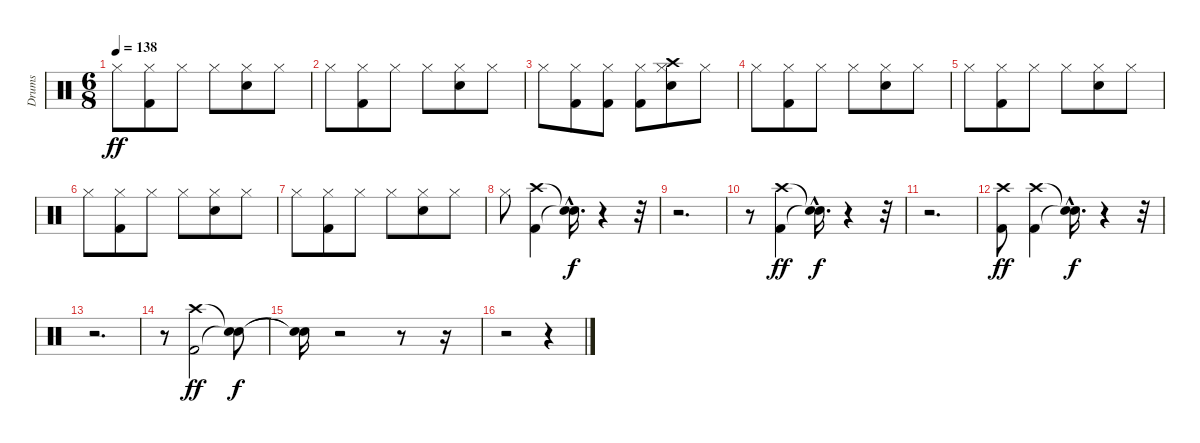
\track ("Drums" "Drums") {instrument percussion}
\staff {score}
\articulation defaults
\ts (6 8)
\tempo 138
\clef neutral
\ks c "Hi-Hat (closed)".8{dy ff}
("Kick (hit) 2" "Hi-Hat (closed)").8 "Hi-Hat (closed)".8 "Hi-Hat (closed)".8 ("Snare (hit) 2" "Hi-Hat (closed)").8 "Hi-Hat (closed)".8 |
"Hi-Hat (closed)".8 ("Kick (hit) 2" "Hi-Hat (closed)").8 "Hi-Hat (closed)".8 "Hi-Hat (closed)".8 ("Snare (hit) 2" "Hi-Hat (closed)").8 "Hi-Hat (closed)".8 |
"Hi-Hat (closed)".8 ("Kick (hit) 2" "Hi-Hat (closed)").8 ("Kick (hit) 2" "Hi-Hat (closed)").8 ("Kick (hit) 2" "Hi-Hat (closed)").8 ("Snare (hit) 2" "Hi-Hat (closed)" "Crash high (hit)").8 "Hi-Hat (closed)".8 |
"Hi-Hat (closed)".8 ("Kick (hit) 2" "Hi-Hat (closed)").8 "Hi-Hat (closed)".8 "Hi-Hat (closed)".8 ("Snare (hit) 2" "Hi-Hat (closed)").8 "Hi-Hat (closed)".8 |
"Hi-Hat (closed)".8 ("Kick (hit) 2" "Hi-Hat (closed)").8 "Hi-Hat (closed)".8 "Hi-Hat (closed)".8 ("Snare (hit) 2" "Hi-Hat (closed)").8 "Hi-Hat (closed)".8 |
"Hi-Hat (closed)".8 ("Kick (hit) 2" "Hi-Hat (closed)").8 "Hi-Hat (closed)".8 "Hi-Hat (closed)".8 ("Snare (hit) 2" "Hi-Hat (closed)").8 "Hi-Hat (closed)".8 |
"Hi-Hat (closed)".8 ("Kick (hit) 2" "Hi-Hat (closed)").8 "Hi-Hat (closed)".8 "Hi-Hat (closed)".8 ("Snare (hit) 2" "Hi-Hat (closed)").8 "Hi-Hat (closed)".8 |
"Hi-Hat (closed)".8 ("Kick (hit) 2" "Crash high (hit)").4 ("Snare (hit)"{hac t} "Snare (hit)"{hac t}).16{d dy f} r.4 r.32 |
r.2{d} |
r.8 ("Kick (hit) 2" "Crash high (hit)").4{dy ff} ("Snare (hit)"{hac t} "Snare (hit)"{hac t}).16{d dy f} r.4 r.32 |
r.2{d} |
("Kick (hit) 2" "Crash high (hit)").8{dy ff} ("Kick (hit) 2" "Crash high (hit)").4 ("Snare (hit)"{hac t} "Snare (hit)"{hac t}).16{d dy f} r.4 r.32 |
r.2{d} |
r.8 ("Kick (hit) 2" "Crash high (hit)").2{dy ff} ("Snare (hit)"{t} "Snare (hit)"{t}).8{dy f} |
("Snare (hit)"{t} "Snare (hit)"{t}).16 r.2 r.8 r.16 |
r.2 r.4
